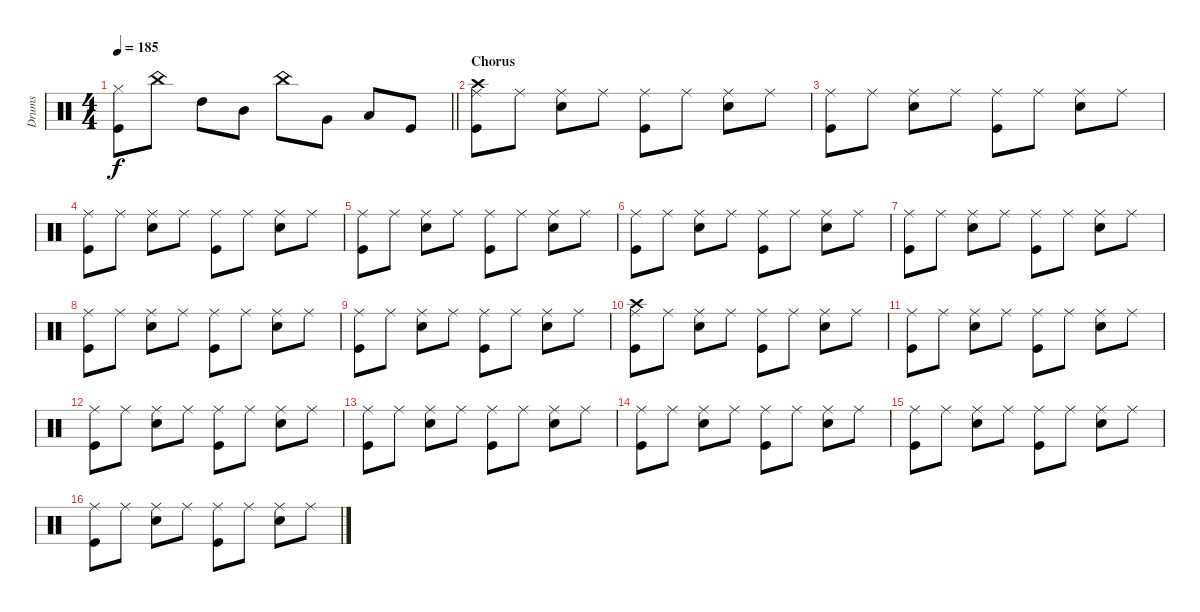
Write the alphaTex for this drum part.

\track ("Drums" "Drums") {instrument percussion}
\staff {score}
\articulation defaults
\ts (4 4)
\tempo 185
\clef neutral
\barLineRight lightlight
\ks c
("Kick (hit)" "Hi-Hat (closed)").8{dy f} "China (hit)".8 "High Tom (hit)".8 "Mid Tom (hit)".8 "China (hit)".8 "Very Low Tom (hit)".8 "Low Floor Tom (hit)".8 "Kick (hit)".8 |
\section ("" "Chorus")
("Crash high (hit)" "Ride (middle)" "Kick (hit)").8 "Ride (middle)".8 ("Ride (middle)" "Snare (hit) 2").8 "Ride (middle)".8 ("Ride (middle)" "Kick (hit)").8 "Ride (middle)".8 ("Ride (middle)" "Snare (hit) 2").8 "Ride (middle)".8 |
("Ride (middle)" "Kick (hit)").8 "Ride (middle)".8 ("Ride (middle)" "Snare (hit) 2").8 "Ride (middle)".8 ("Ride (middle)" "Kick (hit)").8 "Ride (middle)".8 ("Ride (middle)" "Snare (hit) 2").8 "Ride (middle)".8 |
("Ride (middle)" "Kick (hit)").8 "Ride (middle)".8 ("Ride (middle)" "Snare (hit) 2").8 "Ride (middle)".8 ("Ride (middle)" "Kick (hit)").8 "Ride (middle)".8 ("Ride (middle)" "Snare (hit) 2").8 "Ride (middle)".8 |
("Ride (middle)" "Kick (hit)").8 "Ride (middle)".8 ("Ride (middle)" "Snare (hit) 2").8 "Ride (middle)".8 ("Ride (middle)" "Kick (hit)").8 "Ride (middle)".8 ("Ride (middle)" "Snare (hit) 2").8 "Ride (middle)".8 |
("Ride (middle)" "Kick (hit)").8 "Ride (middle)".8 ("Ride (middle)" "Snare (hit) 2").8 "Ride (middle)".8 ("Ride (middle)" "Kick (hit)").8 "Ride (middle)".8 ("Ride (middle)" "Snare (hit) 2").8 "Ride (middle)".8 |
("Ride (middle)" "Kick (hit)").8 "Ride (middle)".8 ("Ride (middle)" "Snare (hit) 2").8 "Ride (middle)".8 ("Ride (middle)" "Kick (hit)").8 "Ride (middle)".8 ("Ride (middle)" "Snare (hit) 2").8 "Ride (middle)".8 |
("Ride (middle)" "Kick (hit)").8 "Ride (middle)".8 ("Ride (middle)" "Snare (hit) 2").8 "Ride (middle)".8 ("Ride (middle)" "Kick (hit)").8 "Ride (middle)".8 ("Ride (middle)" "Snare (hit) 2").8 "Ride (middle)".8 |
("Ride (middle)" "Kick (hit)").8 "Ride (middle)".8 ("Ride (middle)" "Snare (hit) 2").8 "Ride (middle)".8 ("Ride (middle)" "Kick (hit)").8 "Ride (middle)".8 ("Ride (middle)" "Snare (hit) 2").8 "Ride (middle)".8 |
("Crash high (hit)" "Ride (middle)" "Kick (hit)").8 "Ride (middle)".8 ("Ride (middle)" "Snare (hit) 2").8 "Ride (middle)".8 ("Ride (middle)" "Kick (hit)").8 "Ride (middle)".8 ("Ride (middle)" "Snare (hit) 2").8 "Ride (middle)".8 |
("Ride (middle)" "Kick (hit)").8 "Ride (middle)".8 ("Ride (middle)" "Snare (hit) 2").8 "Ride (middle)".8 ("Ride (middle)" "Kick (hit)").8 "Ride (middle)".8 ("Ride (middle)" "Snare (hit) 2").8 "Ride (middle)".8 |
("Ride (middle)" "Kick (hit)").8 "Ride (middle)".8 ("Ride (middle)" "Snare (hit) 2").8 "Ride (middle)".8 ("Ride (middle)" "Kick (hit)").8 "Ride (middle)".8 ("Ride (middle)" "Snare (hit) 2").8 "Ride (middle)".8 |
("Ride (middle)" "Kick (hit)").8 "Ride (middle)".8 ("Ride (middle)" "Snare (hit) 2").8 "Ride (middle)".8 ("Ride (middle)" "Kick (hit)").8 "Ride (middle)".8 ("Ride (middle)" "Snare (hit) 2").8 "Ride (middle)".8 |
("Ride (middle)" "Kick (hit)").8 "Ride (middle)".8 ("Ride (middle)" "Snare (hit) 2").8 "Ride (middle)".8 ("Ride (middle)" "Kick (hit)").8 "Ride (middle)".8 ("Ride (middle)" "Snare (hit) 2").8 "Ride (middle)".8 |
("Ride (middle)" "Kick (hit)").8 "Ride (middle)".8 ("Ride (middle)" "Snare (hit) 2").8 "Ride (middle)".8 ("Ride (middle)" "Kick (hit)").8 "Ride (middle)".8 ("Ride (middle)" "Snare (hit) 2").8 "Ride (middle)".8 |
("Ride (middle)" "Kick (hit)").8 "Ride (middle)".8 ("Ride (middle)" "Snare (hit) 2").8 "Ride (middle)".8 ("Ride (middle)" "Kick (hit)").8 "Ride (middle)".8 ("Ride (middle)" "Snare (hit) 2").8 "Ride (middle)".8
